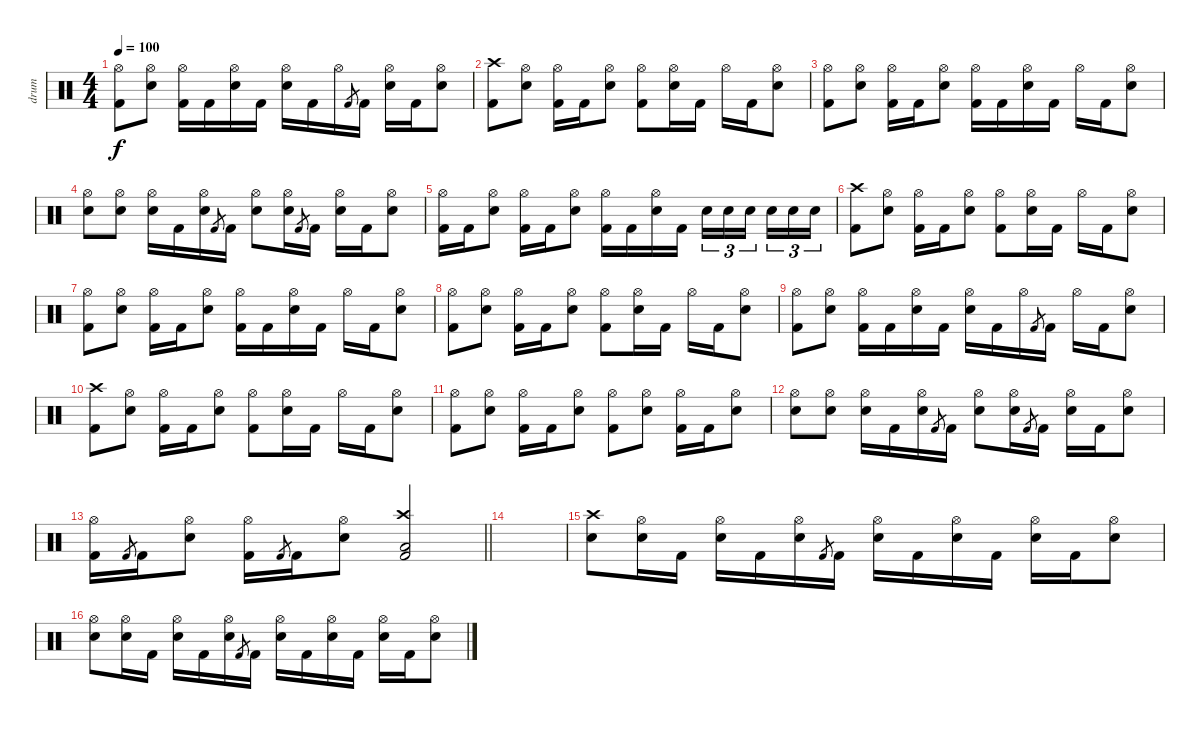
\track ("drum" "drum") {instrument percussion}
\staff {score}
\articulation defaults
\ts (4 4)
\tempo 100
\clef neutral
\ks c
("Hi-Hat (open)" "Kick (hit) 2").8{dy f} ("Hi-Hat (open)" "Electric Snare (hit)").8 ("Hi-Hat (open)" "Kick (hit) 2").16 "Kick (hit) 2".16 ("Hi-Hat (open)" "Electric Snare (hit)").16 "Kick (hit) 2".16 ("Hi-Hat (open)" "Electric Snare (hit)").16 "Kick (hit) 2".16 "Hi-Hat (open)".16 "Kick (hit) 2".8{gr} "Kick (hit) 2".16 ("Hi-Hat (open)" "Electric Snare (hit)").16 "Kick (hit) 2".16 ("Hi-Hat (open)" "Electric Snare (hit)").8 |
("Crash high (hit)" "Kick (hit) 2").8 ("Hi-Hat (open)" "Electric Snare (hit)").8 ("Hi-Hat (open)" "Kick (hit) 2").16 "Kick (hit) 2".16 ("Hi-Hat (open)" "Electric Snare (hit)").8 ("Hi-Hat (open)" "Kick (hit) 2").8 ("Hi-Hat (open)" "Electric Snare (hit)").16 "Kick (hit) 2".16 "Hi-Hat (open)".16 "Kick (hit) 2".16 ("Hi-Hat (open)" "Electric Snare (hit)").8 |
("Hi-Hat (open)" "Kick (hit) 2").8 ("Hi-Hat (open)" "Electric Snare (hit)").8 ("Hi-Hat (open)" "Kick (hit) 2").16 "Kick (hit) 2".16 ("Hi-Hat (open)" "Electric Snare (hit)").8 ("Hi-Hat (open)" "Kick (hit) 2").16 "Kick (hit) 2".16 ("Hi-Hat (open)" "Electric Snare (hit)").16 "Kick (hit) 2".16 "Hi-Hat (open)".16 "Kick (hit) 2".16 ("Hi-Hat (open)" "Electric Snare (hit)").8 |
("Hi-Hat (open)" "Electric Snare (hit)").8 ("Hi-Hat (open)" "Electric Snare (hit)").8 ("Hi-Hat (open)" "Electric Snare (hit)").16 "Kick (hit) 2".16 ("Hi-Hat (open)" "Electric Snare (hit)").16 "Kick (hit) 2".8{gr} "Kick (hit) 2".16 ("Hi-Hat (open)" "Electric Snare (hit)").8 ("Hi-Hat (open)" "Electric Snare (hit)").16 "Kick (hit) 2".8{gr} "Kick (hit) 2".16 ("Hi-Hat (open)" "Electric Snare (hit)").16 "Kick (hit) 2".16 ("Hi-Hat (open)" "Electric Snare (hit)").8 |
("Hi-Hat (open)" "Kick (hit) 2").16 "Kick (hit) 2".16 ("Hi-Hat (open)" "Electric Snare (hit)").8 ("Hi-Hat (open)" "Kick (hit) 2").16 "Kick (hit) 2".16 ("Hi-Hat (open)" "Electric Snare (hit)").8 ("Hi-Hat (open)" "Kick (hit) 2").16 "Kick (hit) 2".16 ("Hi-Hat (open)" "Electric Snare (hit)").16 "Kick (hit) 2".16 "Electric Snare (hit)".16{tu (3 2)} "Electric Snare (hit)".16{tu (3 2)} "Electric Snare (hit)".16{tu (3 2) beam splitsecondary} "Electric Snare (hit)".16{tu (3 2)} "Electric Snare (hit)".16{tu (3 2)} "Electric Snare (hit)".16{tu (3 2)} |
("Crash high (hit)" "Kick (hit) 2").8 ("Hi-Hat (open)" "Electric Snare (hit)").8 ("Hi-Hat (open)" "Kick (hit) 2").16 "Kick (hit) 2".16 ("Hi-Hat (open)" "Electric Snare (hit)").8 ("Hi-Hat (open)" "Kick (hit) 2").8 ("Hi-Hat (open)" "Electric Snare (hit)").16 "Kick (hit) 2".16 "Hi-Hat (open)".16 "Kick (hit) 2".16 ("Hi-Hat (open)" "Electric Snare (hit)").8 |
("Hi-Hat (open)" "Kick (hit) 2").8 ("Hi-Hat (open)" "Electric Snare (hit)").8 ("Hi-Hat (open)" "Kick (hit) 2").16 "Kick (hit) 2".16 ("Hi-Hat (open)" "Electric Snare (hit)").8 ("Hi-Hat (open)" "Kick (hit) 2").16 "Kick (hit) 2".16 ("Hi-Hat (open)" "Electric Snare (hit)").16 "Kick (hit) 2".16 "Hi-Hat (open)".16 "Kick (hit) 2".16 ("Hi-Hat (open)" "Electric Snare (hit)").8 |
("Hi-Hat (open)" "Kick (hit) 2").8 ("Hi-Hat (open)" "Electric Snare (hit)").8 ("Hi-Hat (open)" "Kick (hit) 2").16 "Kick (hit) 2".16 ("Hi-Hat (open)" "Electric Snare (hit)").8 ("Hi-Hat (open)" "Kick (hit) 2").8 ("Hi-Hat (open)" "Electric Snare (hit)").16 "Kick (hit) 2".16 "Hi-Hat (open)".16 "Kick (hit) 2".16 ("Hi-Hat (open)" "Electric Snare (hit)").8 |
("Hi-Hat (open)" "Kick (hit) 2").8 ("Hi-Hat (open)" "Electric Snare (hit)").8 ("Hi-Hat (open)" "Kick (hit) 2").16 "Kick (hit) 2".16 ("Hi-Hat (open)" "Electric Snare (hit)").16 "Kick (hit) 2".16 ("Hi-Hat (open)" "Electric Snare (hit)").16 "Kick (hit) 2".16 "Hi-Hat (open)".16 "Kick (hit) 2".8{gr} "Kick (hit) 2".16 "Hi-Hat (open)".16 "Kick (hit) 2".16 ("Hi-Hat (open)" "Electric Snare (hit)").8 |
("Crash high (hit)" "Kick (hit) 2").8 ("Hi-Hat (open)" "Electric Snare (hit)").8 ("Hi-Hat (open)" "Kick (hit) 2").16 "Kick (hit) 2".16 ("Hi-Hat (open)" "Electric Snare (hit)").8 ("Hi-Hat (open)" "Kick (hit) 2").8 ("Hi-Hat (open)" "Electric Snare (hit)").16 "Kick (hit) 2".16 "Hi-Hat (open)".16 "Kick (hit) 2".16 ("Hi-Hat (open)" "Electric Snare (hit)").8 |
("Hi-Hat (open)" "Kick (hit) 2").8 ("Hi-Hat (open)" "Electric Snare (hit)").8 ("Hi-Hat (open)" "Kick (hit) 2").16 "Kick (hit) 2".16 ("Hi-Hat (open)" "Electric Snare (hit)").8 ("Hi-Hat (open)" "Kick (hit) 2").8 ("Hi-Hat (open)" "Electric Snare (hit)").8 ("Hi-Hat (open)" "Kick (hit) 2").16 "Kick (hit) 2".16 ("Hi-Hat (open)" "Electric Snare (hit)").8 |
("Hi-Hat (open)" "Electric Snare (hit)").8 ("Hi-Hat (open)" "Electric Snare (hit)").8 ("Hi-Hat (open)" "Electric Snare (hit)").16 "Kick (hit) 2".16 ("Hi-Hat (open)" "Electric Snare (hit)").16 "Kick (hit) 2".8{gr} "Kick (hit) 2".16 ("Hi-Hat (open)" "Electric Snare (hit)").8 ("Hi-Hat (open)" "Electric Snare (hit)").16 "Kick (hit) 2".8{gr} "Kick (hit) 2".16 ("Hi-Hat (open)" "Electric Snare (hit)").16 "Kick (hit) 2".16 ("Hi-Hat (open)" "Electric Snare (hit)").8 |
\barLineRight lightlight
("Hi-Hat (open)" "Kick (hit) 2").16 "Kick (hit) 2".8{gr} "Kick (hit) 2".16 ("Hi-Hat (open)" "Electric Snare (hit)").8 ("Hi-Hat (open)" "Kick (hit) 2").16 "Kick (hit) 2".8{gr} "Kick (hit) 2".16 ("Hi-Hat (open)" "Electric Snare (hit)").8 ("Crash high (hit)" "Low Floor Tom (hit)" "Kick (hit) 2").2 |
|
("Crash high (hit)" "Electric Snare (hit)").8 ("Hi-Hat (open)" "Electric Snare (hit)").16 "Kick (hit) 2".16 ("Hi-Hat (open)" "Electric Snare (hit)").16 "Kick (hit) 2".16 ("Hi-Hat (open)" "Electric Snare (hit)").16 "Kick (hit) 2".8{gr} "Kick (hit) 2".16 ("Hi-Hat (open)" "Electric Snare (hit)").16 "Kick (hit) 2".16 ("Hi-Hat (open)" "Electric Snare (hit)").16 "Kick (hit) 2".16 ("Hi-Hat (open)" "Electric Snare (hit)").16 "Kick (hit) 2".16 ("Hi-Hat (open)" "Electric Snare (hit)").8 |
("Hi-Hat (open)" "Electric Snare (hit)").8 ("Hi-Hat (open)" "Electric Snare (hit)").16 "Kick (hit) 2".16 ("Hi-Hat (open)" "Electric Snare (hit)").16 "Kick (hit) 2".16 ("Hi-Hat (open)" "Electric Snare (hit)").16 "Kick (hit) 2".8{gr} "Kick (hit) 2".16 ("Hi-Hat (open)" "Electric Snare (hit)").16 "Kick (hit) 2".16 ("Hi-Hat (open)" "Electric Snare (hit)").16 "Kick (hit) 2".16 ("Hi-Hat (open)" "Electric Snare (hit)").16 "Kick (hit) 2".16 ("Hi-Hat (open)" "Electric Snare (hit)").8
